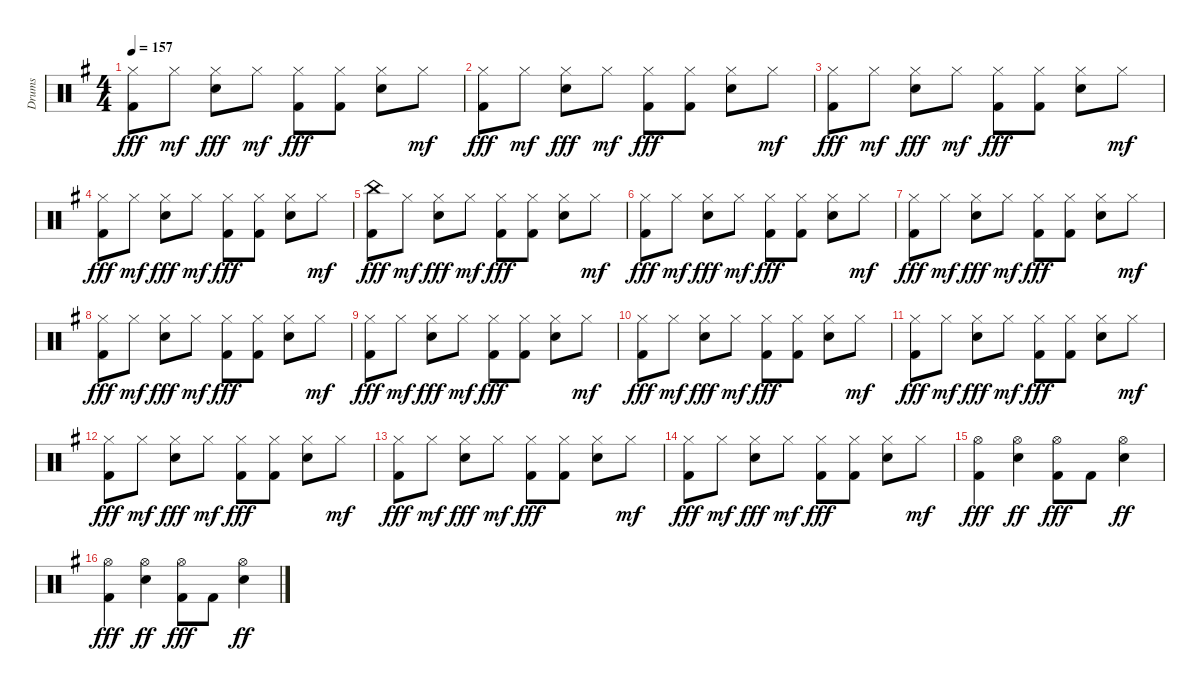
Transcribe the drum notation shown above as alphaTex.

\track ("Drums" "Drums") {instrument percussion}
\staff {score}
\articulation defaults
\ts (4 4)
\tempo 157
\clef neutral
\ks g
("Hi-Hat (closed)" "Kick (hit) 2").8{dy fff} "Hi-Hat (closed)".8{dy mf} ("Electric Snare (hit)" "Hi-Hat (closed)").8{dy fff} "Hi-Hat (closed)".8{dy mf} ("Hi-Hat (closed)" "Kick (hit) 2").8{dy fff} ("Hi-Hat (closed)" "Kick (hit) 2").8 ("Electric Snare (hit)" "Hi-Hat (closed)").8 "Hi-Hat (closed)".8{dy mf} |
("Hi-Hat (closed)" "Kick (hit) 2").8{dy fff} "Hi-Hat (closed)".8{dy mf} ("Electric Snare (hit)" "Hi-Hat (closed)").8{dy fff} "Hi-Hat (closed)".8{dy mf} ("Hi-Hat (closed)" "Kick (hit) 2").8{dy fff} ("Hi-Hat (closed)" "Kick (hit) 2").8 ("Electric Snare (hit)" "Hi-Hat (closed)").8 "Hi-Hat (closed)".8{dy mf} |
("Hi-Hat (closed)" "Kick (hit) 2").8{dy fff} "Hi-Hat (closed)".8{dy mf} ("Electric Snare (hit)" "Hi-Hat (closed)").8{dy fff} "Hi-Hat (closed)".8{dy mf} ("Hi-Hat (closed)" "Kick (hit) 2").8{dy fff} ("Hi-Hat (closed)" "Kick (hit) 2").8 ("Electric Snare (hit)" "Hi-Hat (closed)").8 "Hi-Hat (closed)".8{dy mf} |
("Hi-Hat (closed)" "Kick (hit) 2").8{dy fff} "Hi-Hat (closed)".8{dy mf} ("Electric Snare (hit)" "Hi-Hat (closed)").8{dy fff} "Hi-Hat (closed)".8{dy mf} ("Hi-Hat (closed)" "Kick (hit) 2").8{dy fff} ("Hi-Hat (closed)" "Kick (hit) 2").8 ("Electric Snare (hit)" "Hi-Hat (closed)").8 "Hi-Hat (closed)".8{dy mf} |
("China (hit)" "Kick (hit) 2").8{dy fff} "Hi-Hat (closed)".8{dy mf} ("Electric Snare (hit)" "Hi-Hat (closed)").8{dy fff} "Hi-Hat (closed)".8{dy mf} ("Hi-Hat (closed)" "Kick (hit) 2").8{dy fff} ("Hi-Hat (closed)" "Kick (hit) 2").8 ("Electric Snare (hit)" "Hi-Hat (closed)").8 "Hi-Hat (closed)".8{dy mf} |
("Hi-Hat (closed)" "Kick (hit) 2").8{dy fff} "Hi-Hat (closed)".8{dy mf} ("Electric Snare (hit)" "Hi-Hat (closed)").8{dy fff} "Hi-Hat (closed)".8{dy mf} ("Hi-Hat (closed)" "Kick (hit) 2").8{dy fff} ("Hi-Hat (closed)" "Kick (hit) 2").8 ("Electric Snare (hit)" "Hi-Hat (closed)").8 "Hi-Hat (closed)".8{dy mf} |
("Hi-Hat (closed)" "Kick (hit) 2").8{dy fff} "Hi-Hat (closed)".8{dy mf} ("Electric Snare (hit)" "Hi-Hat (closed)").8{dy fff} "Hi-Hat (closed)".8{dy mf} ("Hi-Hat (closed)" "Kick (hit) 2").8{dy fff} ("Hi-Hat (closed)" "Kick (hit) 2").8 ("Electric Snare (hit)" "Hi-Hat (closed)").8 "Hi-Hat (closed)".8{dy mf} |
("Hi-Hat (closed)" "Kick (hit) 2").8{dy fff} "Hi-Hat (closed)".8{dy mf} ("Electric Snare (hit)" "Hi-Hat (closed)").8{dy fff} "Hi-Hat (closed)".8{dy mf} ("Hi-Hat (closed)" "Kick (hit) 2").8{dy fff} ("Hi-Hat (closed)" "Kick (hit) 2").8 ("Electric Snare (hit)" "Hi-Hat (closed)").8 "Hi-Hat (closed)".8{dy mf} |
("Hi-Hat (closed)" "Kick (hit) 2").8{dy fff} "Hi-Hat (closed)".8{dy mf} ("Electric Snare (hit)" "Hi-Hat (closed)").8{dy fff} "Hi-Hat (closed)".8{dy mf} ("Hi-Hat (closed)" "Kick (hit) 2").8{dy fff} ("Hi-Hat (closed)" "Kick (hit) 2").8 ("Electric Snare (hit)" "Hi-Hat (closed)").8 "Hi-Hat (closed)".8{dy mf} |
("Hi-Hat (closed)" "Kick (hit) 2").8{dy fff} "Hi-Hat (closed)".8{dy mf} ("Electric Snare (hit)" "Hi-Hat (closed)").8{dy fff} "Hi-Hat (closed)".8{dy mf} ("Hi-Hat (closed)" "Kick (hit) 2").8{dy fff} ("Hi-Hat (closed)" "Kick (hit) 2").8 ("Electric Snare (hit)" "Hi-Hat (closed)").8 "Hi-Hat (closed)".8{dy mf} |
("Hi-Hat (closed)" "Kick (hit) 2").8{dy fff} "Hi-Hat (closed)".8{dy mf} ("Electric Snare (hit)" "Hi-Hat (closed)").8{dy fff} "Hi-Hat (closed)".8{dy mf} ("Hi-Hat (closed)" "Kick (hit) 2").8{dy fff} ("Hi-Hat (closed)" "Kick (hit) 2").8 ("Electric Snare (hit)" "Hi-Hat (closed)").8 "Hi-Hat (closed)".8{dy mf} |
("Hi-Hat (closed)" "Kick (hit) 2").8{dy fff} "Hi-Hat (closed)".8{dy mf} ("Electric Snare (hit)" "Hi-Hat (closed)").8{dy fff} "Hi-Hat (closed)".8{dy mf} ("Hi-Hat (closed)" "Kick (hit) 2").8{dy fff} ("Hi-Hat (closed)" "Kick (hit) 2").8 ("Electric Snare (hit)" "Hi-Hat (closed)").8 "Hi-Hat (closed)".8{dy mf} |
("Hi-Hat (closed)" "Kick (hit) 2").8{dy fff} "Hi-Hat (closed)".8{dy mf} ("Electric Snare (hit)" "Hi-Hat (closed)").8{dy fff} "Hi-Hat (closed)".8{dy mf} ("Hi-Hat (closed)" "Kick (hit) 2").8{dy fff} ("Hi-Hat (closed)" "Kick (hit) 2").8 ("Electric Snare (hit)" "Hi-Hat (closed)").8 "Hi-Hat (closed)".8{dy mf} |
("Hi-Hat (closed)" "Kick (hit) 2").8{dy fff} "Hi-Hat (closed)".8{dy mf} ("Electric Snare (hit)" "Hi-Hat (closed)").8{dy fff} "Hi-Hat (closed)".8{dy mf} ("Hi-Hat (closed)" "Kick (hit) 2").8{dy fff} ("Hi-Hat (closed)" "Kick (hit) 2").8 ("Electric Snare (hit)" "Hi-Hat (closed)").8 "Hi-Hat (closed)".8{dy mf} |
("Hi-Hat (open)" "Kick (hit) 2").4{dy fff} ("Electric Snare (hit)" "Hi-Hat (open)").4{dy ff} ("Hi-Hat (open)" "Kick (hit) 2").8{dy fff} "Kick (hit) 2".8 ("Electric Snare (hit)" "Hi-Hat (open)").4{dy ff} |
("Hi-Hat (open)" "Kick (hit) 2").4{dy fff} ("Electric Snare (hit)" "Hi-Hat (open)").4{dy ff} ("Hi-Hat (open)" "Kick (hit) 2").8{dy fff} "Kick (hit) 2".8 ("Electric Snare (hit)" "Hi-Hat (open)").4{dy ff}
